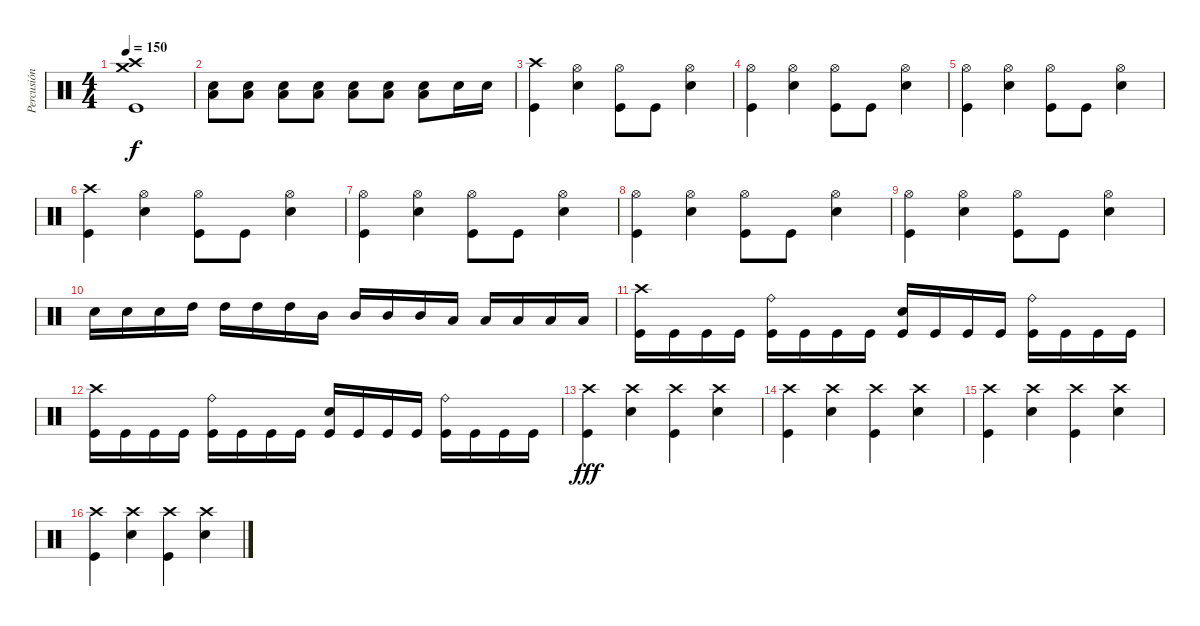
\track ("Percusión" "Percusión") {instrument percussion bank 106}
\staff {score}
\articulation defaults
\ts (4 4)
\tempo 150
\clef neutral
\ks c
("Crash medium (hit)" "Crash high (hit)" "Kick (hit)").1{dy f} |
("Low Tom (hit)" "Electric Snare (hit)").8 ("Low Tom (hit)" "Electric Snare (hit)").8 ("Low Tom (hit)" "Electric Snare (hit)").8 ("Low Tom (hit)" "Electric Snare (hit)").8 ("Low Tom (hit)" "Electric Snare (hit)").8 ("Low Tom (hit)" "Electric Snare (hit)").8 ("Low Tom (hit)" "Electric Snare (hit)").8 "Electric Snare (hit)".16 "Electric Snare (hit)".16 |
("Crash high (hit)" "Kick (hit)").4 ("Hi-Hat (open)" "Electric Snare (hit)").4 ("Hi-Hat (open)" "Kick (hit)").8 "Kick (hit)".8 ("Hi-Hat (open)" "Electric Snare (hit)").4 |
("Hi-Hat (open)" "Kick (hit)").4 ("Hi-Hat (open)" "Electric Snare (hit)").4 ("Hi-Hat (open)" "Kick (hit)").8 "Kick (hit)".8 ("Hi-Hat (open)" "Electric Snare (hit)").4 |
("Hi-Hat (open)" "Kick (hit)").4 ("Hi-Hat (open)" "Electric Snare (hit)").4 ("Hi-Hat (open)" "Kick (hit)").8 "Kick (hit)".8 ("Hi-Hat (open)" "Electric Snare (hit)").4 |
("Crash high (hit)" "Kick (hit)").4 ("Hi-Hat (open)" "Electric Snare (hit)").4 ("Hi-Hat (open)" "Kick (hit)").8 "Kick (hit)".8 ("Hi-Hat (open)" "Electric Snare (hit)").4 |
("Hi-Hat (open)" "Kick (hit)").4 ("Hi-Hat (open)" "Electric Snare (hit)").4 ("Hi-Hat (open)" "Kick (hit)").8 "Kick (hit)".8 ("Hi-Hat (open)" "Electric Snare (hit)").4 |
("Hi-Hat (open)" "Kick (hit)").4 ("Hi-Hat (open)" "Electric Snare (hit)").4 ("Hi-Hat (open)" "Kick (hit)").8 "Kick (hit)".8 ("Hi-Hat (open)" "Electric Snare (hit)").4 |
("Hi-Hat (open)" "Kick (hit)").4 ("Hi-Hat (open)" "Electric Snare (hit)").4 ("Hi-Hat (open)" "Kick (hit)").8 "Kick (hit)".8 ("Hi-Hat (open)" "Electric Snare (hit)").4 |
"Electric Snare (hit)".16 "Electric Snare (hit)".16 "Electric Snare (hit)".16 "High Tom (hit)".16 "High Tom (hit)".16 "High Tom (hit)".16 "High Tom (hit)".16 "Mid Tom (hit)".16 "Mid Tom (hit)".16 "Mid Tom (hit)".16 "Mid Tom (hit)".16 "Low Tom (hit)".16 "Low Tom (hit)".16 "Low Tom (hit)".16 "Low Tom (hit)".16 "Low Tom (hit)".16 |
("Crash high (hit)" "Kick (hit)").16 "Kick (hit)".16 "Kick (hit)".16 "Kick (hit)".16 ("Ride (bell)" "Kick (hit)").16 "Kick (hit)".16 "Kick (hit)".16 "Kick (hit)".16 ("Electric Snare (hit)" "Kick (hit)").16 "Kick (hit)".16 "Kick (hit)".16 "Kick (hit)".16 ("Ride (bell)" "Kick (hit)").16 "Kick (hit)".16 "Kick (hit)".16 "Kick (hit)".16 |
("Crash high (hit)" "Kick (hit)").16 "Kick (hit)".16 "Kick (hit)".16 "Kick (hit)".16 ("Ride (bell)" "Kick (hit)").16 "Kick (hit)".16 "Kick (hit)".16 "Kick (hit)".16 ("Electric Snare (hit)" "Kick (hit)").16 "Kick (hit)".16 "Kick (hit)".16 "Kick (hit)".16 ("Ride (bell)" "Kick (hit)").16 "Kick (hit)".16 "Kick (hit)".16 "Kick (hit)".16 |
("Crash high (hit)" "Kick (hit)").4{dy fff} ("Crash high (hit)" "Electric Snare (hit)").4 ("Crash high (hit)" "Kick (hit)").4 ("Crash high (hit)" "Electric Snare (hit)").4 |
("Crash high (hit)" "Kick (hit)").4 ("Crash high (hit)" "Electric Snare (hit)").4 ("Crash high (hit)" "Kick (hit)").4 ("Crash high (hit)" "Electric Snare (hit)").4 |
("Crash high (hit)" "Kick (hit)").4 ("Crash high (hit)" "Electric Snare (hit)").4 ("Crash high (hit)" "Kick (hit)").4 ("Crash high (hit)" "Electric Snare (hit)").4 |
("Crash high (hit)" "Kick (hit)").4 ("Crash high (hit)" "Electric Snare (hit)").4 ("Crash high (hit)" "Kick (hit)").4 ("Crash high (hit)" "Electric Snare (hit)").4
